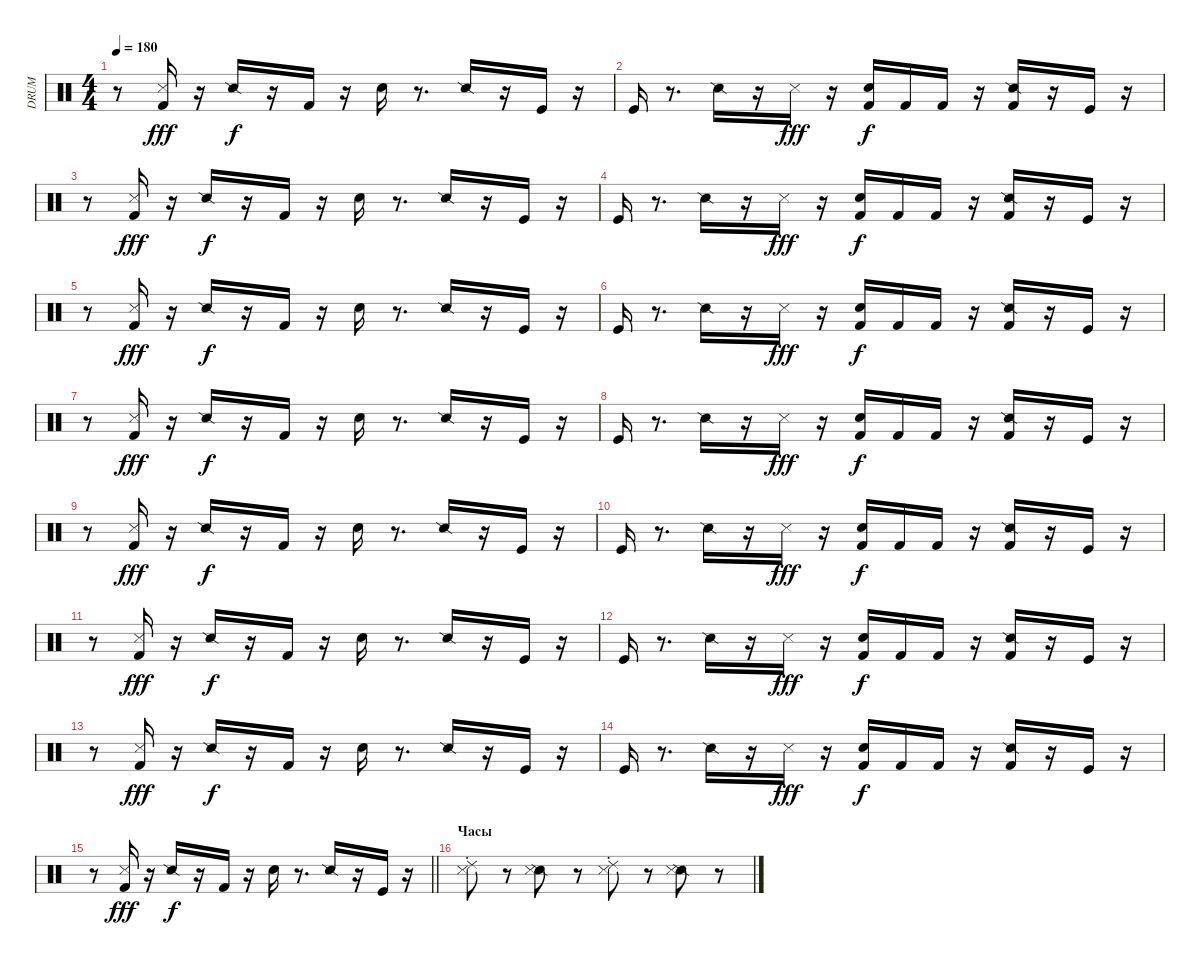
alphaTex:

\track ("DRUM" "DRUM") {instrument percussion}
\staff {score}
\articulation defaults
\ts (4 4)
\tempo 180
\clef neutral
\ks c
r.8{dy f} ("Snare (side stick) 3" "Kick (hit) 2").16{dy fff} r.16 "Snare (side stick) 2".16{dy f} r.16 "Kick (hit) 2".16 r.16 "Snare (hit) 2".16 r.8{d} "Snare (side stick) 2".16 r.16 "Kick (hit)".16 r.16 |
"Kick (hit)".16 r.8{d} "Snare (side stick) 2".16 r.16 "Snare (side stick) 3".16{dy fff} r.16 ("Kick (hit) 2" "Snare (hit) 2").16{dy f} "Kick (hit) 2".16 "Kick (hit) 2".16 r.16 ("Snare (side stick) 2" "Kick (hit) 2").16 r.16 "Kick (hit)".16 r.16 |
r.8 ("Snare (side stick) 3" "Kick (hit) 2").16{dy fff} r.16 "Snare (side stick) 2".16{dy f} r.16 "Kick (hit) 2".16 r.16 "Snare (hit) 2".16 r.8{d} "Snare (side stick) 2".16 r.16 "Kick (hit)".16 r.16 |
"Kick (hit)".16 r.8{d} "Snare (side stick) 2".16 r.16 "Snare (side stick) 3".16{dy fff} r.16 ("Kick (hit) 2" "Snare (hit) 2").16{dy f} "Kick (hit) 2".16 "Kick (hit) 2".16 r.16 ("Snare (side stick) 2" "Kick (hit) 2").16 r.16 "Kick (hit)".16 r.16 |
r.8 ("Snare (side stick) 3" "Kick (hit) 2").16{dy fff} r.16 "Snare (side stick) 2".16{dy f} r.16 "Kick (hit) 2".16 r.16 "Snare (hit) 2".16 r.8{d} "Snare (side stick) 2".16 r.16 "Kick (hit)".16 r.16 |
"Kick (hit)".16 r.8{d} "Snare (side stick) 2".16 r.16 "Snare (side stick) 3".16{dy fff} r.16 ("Kick (hit) 2" "Snare (hit) 2").16{dy f} "Kick (hit) 2".16 "Kick (hit) 2".16 r.16 ("Snare (side stick) 2" "Kick (hit) 2").16 r.16 "Kick (hit)".16 r.16 |
r.8 ("Snare (side stick) 3" "Kick (hit) 2").16{dy fff} r.16 "Snare (side stick) 2".16{dy f} r.16 "Kick (hit) 2".16 r.16 "Snare (hit) 2".16 r.8{d} "Snare (side stick) 2".16 r.16 "Kick (hit)".16 r.16 |
"Kick (hit)".16 r.8{d} "Snare (side stick) 2".16 r.16 "Snare (side stick) 3".16{dy fff} r.16 ("Kick (hit) 2" "Snare (hit) 2").16{dy f} "Kick (hit) 2".16 "Kick (hit) 2".16 r.16 ("Snare (side stick) 2" "Kick (hit) 2").16 r.16 "Kick (hit)".16 r.16 |
r.8 ("Snare (side stick) 3" "Kick (hit) 2").16{dy fff} r.16 "Snare (side stick) 2".16{dy f} r.16 "Kick (hit) 2".16 r.16 "Snare (hit) 2".16 r.8{d} "Snare (side stick) 2".16 r.16 "Kick (hit)".16 r.16 |
"Kick (hit)".16 r.8{d} "Snare (side stick) 2".16 r.16 "Snare (side stick) 3".16{dy fff} r.16 ("Kick (hit) 2" "Snare (hit) 2").16{dy f} "Kick (hit) 2".16 "Kick (hit) 2".16 r.16 ("Snare (side stick) 2" "Kick (hit) 2").16 r.16 "Kick (hit)".16 r.16 |
r.8 ("Snare (side stick) 3" "Kick (hit) 2").16{dy fff} r.16 "Snare (side stick) 2".16{dy f} r.16 "Kick (hit) 2".16 r.16 "Snare (hit) 2".16 r.8{d} "Snare (side stick) 2".16 r.16 "Kick (hit)".16 r.16 |
"Kick (hit)".16 r.8{d} "Snare (side stick) 2".16 r.16 "Snare (side stick) 3".16{dy fff} r.16 ("Kick (hit) 2" "Snare (hit) 2").16{dy f} "Kick (hit) 2".16 "Kick (hit) 2".16 r.16 ("Snare (side stick) 2" "Kick (hit) 2").16 r.16 "Kick (hit)".16 r.16 |
r.8 ("Snare (side stick) 3" "Kick (hit) 2").16{dy fff} r.16 "Snare (side stick) 2".16{dy f} r.16 "Kick (hit) 2".16 r.16 "Snare (hit) 2".16 r.8{d} "Snare (side stick) 2".16 r.16 "Kick (hit)".16 r.16 |
"Kick (hit)".16 r.8{d} "Snare (side stick) 2".16 r.16 "Snare (side stick) 3".16{dy fff} r.16 ("Kick (hit) 2" "Snare (hit) 2").16{dy f} "Kick (hit) 2".16 "Kick (hit) 2".16 r.16 ("Snare (side stick) 2" "Kick (hit) 2").16 r.16 "Kick (hit)".16 r.16 |
\barLineRight lightlight
r.8 ("Snare (side stick) 3" "Kick (hit) 2").16{dy fff} r.16 "Snare (side stick) 2".16{dy f} r.16 "Kick (hit) 2".16 r.16 "Snare (hit) 2".16 r.8{d} "Snare (side stick) 2".16 r.16 "Kick (hit)".16 r.16 |
\section ("" "Часы")
("Metronome (hit)" "Ride (choke) 2").8 r.8 ("Snare (side stick) 2" "Metronome (hit)").8 r.8 ("Metronome (hit)" "Ride (choke) 2").8 r.8 ("Snare (side stick) 2" "Metronome (hit)").8 r.8
